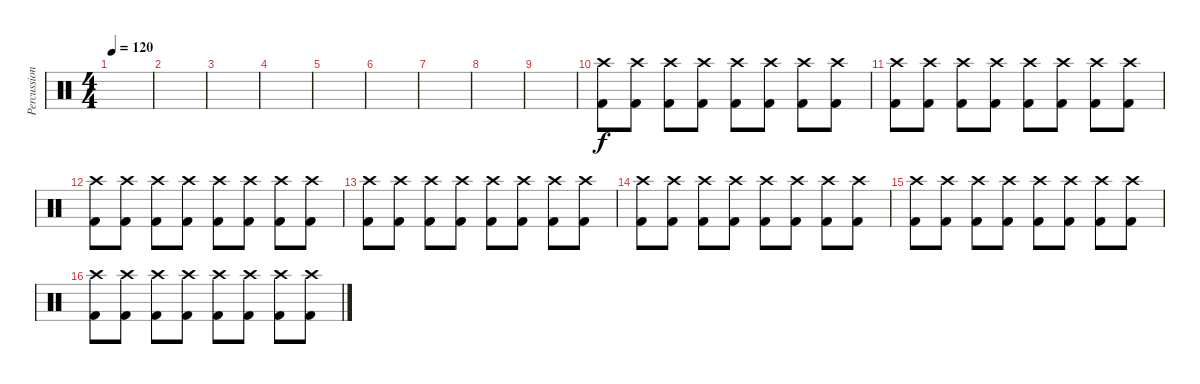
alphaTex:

\track ("Percussion" "Percussion") {instrument percussion}
\staff {score}
\articulation defaults
\ts (4 4)
\tempo 120
\clef neutral
\ks c
|
|
|
|
|
|
|
|
|
("Crash high (hit)" "Kick (hit) 2").8 ("Crash high (hit)" "Kick (hit) 2").8 ("Crash high (hit)" "Kick (hit) 2").8 ("Crash high (hit)" "Kick (hit) 2").8 ("Crash high (hit)" "Kick (hit) 2").8 ("Crash high (hit)" "Kick (hit) 2").8 ("Crash high (hit)" "Kick (hit) 2").8 ("Crash high (hit)" "Kick (hit) 2").8 |
("Crash high (hit)" "Kick (hit) 2").8 ("Crash high (hit)" "Kick (hit) 2").8 ("Crash high (hit)" "Kick (hit) 2").8 ("Crash high (hit)" "Kick (hit) 2").8 ("Crash high (hit)" "Kick (hit) 2").8 ("Crash high (hit)" "Kick (hit) 2").8 ("Crash high (hit)" "Kick (hit) 2").8 ("Crash high (hit)" "Kick (hit) 2").8 |
("Crash high (hit)" "Kick (hit) 2").8 ("Crash high (hit)" "Kick (hit) 2").8 ("Crash high (hit)" "Kick (hit) 2").8 ("Crash high (hit)" "Kick (hit) 2").8 ("Crash high (hit)" "Kick (hit) 2").8 ("Crash high (hit)" "Kick (hit) 2").8 ("Crash high (hit)" "Kick (hit) 2").8 ("Crash high (hit)" "Kick (hit) 2").8 |
("Crash high (hit)" "Kick (hit) 2").8 ("Crash high (hit)" "Kick (hit) 2").8 ("Crash high (hit)" "Kick (hit) 2").8 ("Crash high (hit)" "Kick (hit) 2").8 ("Crash high (hit)" "Kick (hit) 2").8 ("Crash high (hit)" "Kick (hit) 2").8 ("Crash high (hit)" "Kick (hit) 2").8 ("Crash high (hit)" "Kick (hit) 2").8 |
("Crash high (hit)" "Kick (hit) 2").8 ("Crash high (hit)" "Kick (hit) 2").8 ("Crash high (hit)" "Kick (hit) 2").8 ("Crash high (hit)" "Kick (hit) 2").8 ("Crash high (hit)" "Kick (hit) 2").8 ("Crash high (hit)" "Kick (hit) 2").8 ("Crash high (hit)" "Kick (hit) 2").8 ("Crash high (hit)" "Kick (hit) 2").8 |
("Crash high (hit)" "Kick (hit) 2").8 ("Crash high (hit)" "Kick (hit) 2").8 ("Crash high (hit)" "Kick (hit) 2").8 ("Crash high (hit)" "Kick (hit) 2").8 ("Crash high (hit)" "Kick (hit) 2").8 ("Crash high (hit)" "Kick (hit) 2").8 ("Crash high (hit)" "Kick (hit) 2").8 ("Crash high (hit)" "Kick (hit) 2").8 |
("Crash high (hit)" "Kick (hit) 2").8 ("Crash high (hit)" "Kick (hit) 2").8 ("Crash high (hit)" "Kick (hit) 2").8 ("Crash high (hit)" "Kick (hit) 2").8 ("Crash high (hit)" "Kick (hit) 2").8 ("Crash high (hit)" "Kick (hit) 2").8 ("Crash high (hit)" "Kick (hit) 2").8 ("Crash high (hit)" "Kick (hit) 2").8
